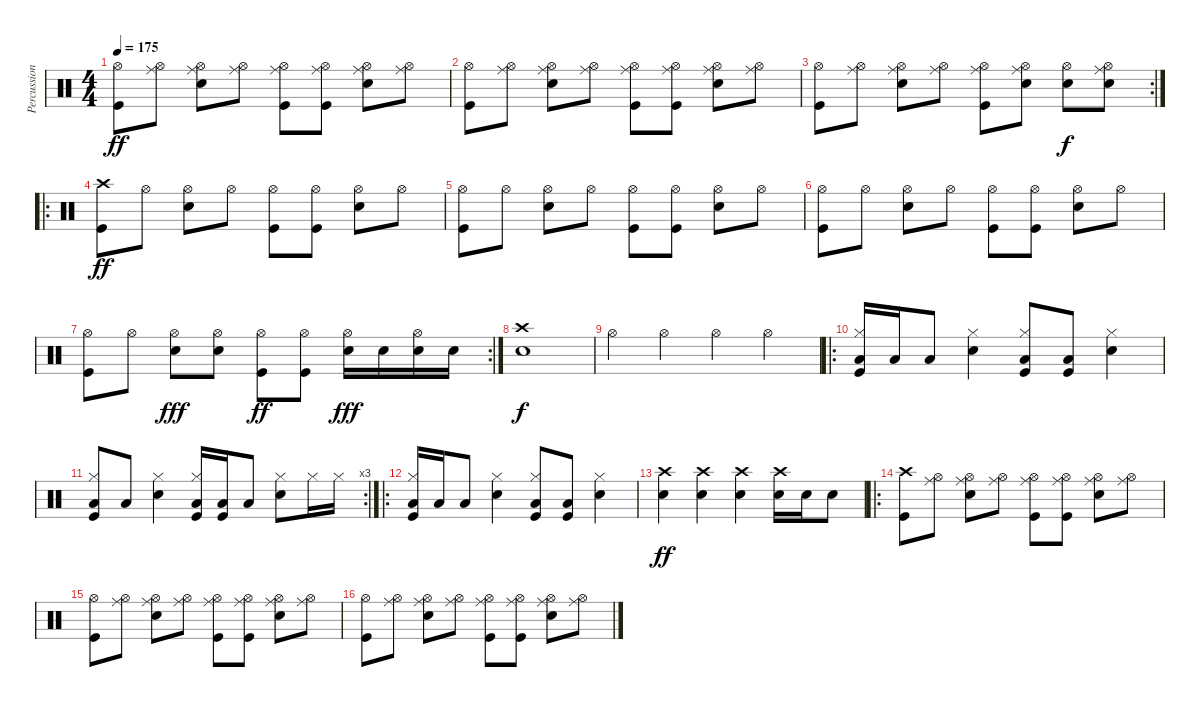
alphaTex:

\track ("Percussioni" "Percussion") {instrument percussion}
\staff {score}
\articulation defaults
\ts (4 4)
\tempo 175
\clef neutral
\ks c
("Hi-Hat (open)" "Kick (hit)").8{dy ff} ("Hi-Hat (open)" "Ride (middle)").8 ("Hi-Hat (open)" "Ride (middle)" "Electric Snare (hit)").8 ("Hi-Hat (open)" "Ride (middle)").8 ("Hi-Hat (open)" "Ride (middle)" "Kick (hit)").8 ("Hi-Hat (open)" "Ride (middle)" "Kick (hit)").8 ("Hi-Hat (open)" "Ride (middle)" "Electric Snare (hit)").8 ("Hi-Hat (open)" "Ride (middle)").8 |
("Hi-Hat (open)" "Kick (hit)").8 ("Hi-Hat (open)" "Ride (middle)").8 ("Hi-Hat (open)" "Ride (middle)" "Electric Snare (hit)").8 ("Hi-Hat (open)" "Ride (middle)").8 ("Hi-Hat (open)" "Ride (middle)" "Kick (hit)").8 ("Hi-Hat (open)" "Ride (middle)" "Kick (hit)").8 ("Hi-Hat (open)" "Ride (middle)" "Electric Snare (hit)").8 ("Hi-Hat (open)" "Ride (middle)").8 |
\rc 2
("Hi-Hat (open)" "Kick (hit)").8 ("Hi-Hat (open)" "Ride (middle)").8 ("Hi-Hat (open)" "Ride (middle)" "Electric Snare (hit)").8 ("Hi-Hat (open)" "Ride (middle)").8 ("Hi-Hat (open)" "Ride (middle)" "Kick (hit)").8 ("Hi-Hat (open)" "Ride (middle)" "Electric Snare (hit)").8 ("Hi-Hat (open)" "Electric Snare (hit)").8{dy f} ("Hi-Hat (open)" "Ride (middle)" "Electric Snare (hit)").8 |
\ro
("Crash high (hit)" "Kick (hit)").8{dy ff} "Hi-Hat (open)".8 ("Hi-Hat (open)" "Electric Snare (hit)").8 "Hi-Hat (open)".8 ("Hi-Hat (open)" "Kick (hit)").8 ("Hi-Hat (open)" "Kick (hit)").8 ("Hi-Hat (open)" "Electric Snare (hit)").8 "Hi-Hat (open)".8 |
("Hi-Hat (open)" "Kick (hit)").8 "Hi-Hat (open)".8 ("Hi-Hat (open)" "Electric Snare (hit)").8 "Hi-Hat (open)".8 ("Hi-Hat (open)" "Kick (hit)").8 ("Hi-Hat (open)" "Kick (hit)").8 ("Hi-Hat (open)" "Electric Snare (hit)").8 "Hi-Hat (open)".8 |
("Hi-Hat (open)" "Kick (hit)").8 "Hi-Hat (open)".8 ("Hi-Hat (open)" "Electric Snare (hit)").8 "Hi-Hat (open)".8 ("Hi-Hat (open)" "Kick (hit)").8 ("Hi-Hat (open)" "Kick (hit)").8 ("Hi-Hat (open)" "Electric Snare (hit)").8 "Hi-Hat (open)".8 |
\rc 2
("Hi-Hat (open)" "Kick (hit)").8 "Hi-Hat (open)".8 ("Hi-Hat (open)" "Electric Snare (hit)").8{dy fff} ("Hi-Hat (open)" "Electric Snare (hit)").8 ("Hi-Hat (open)" "Kick (hit)").8{dy ff} ("Hi-Hat (open)" "Kick (hit)").8 ("Hi-Hat (open)" "Electric Snare (hit)").16{dy fff} "Electric Snare (hit)".16 ("Hi-Hat (open)" "Electric Snare (hit)").16 "Electric Snare (hit)".16 |
("Crash high (hit)" "Electric Snare (hit)").1{dy f} |
"Hi-Hat (open)".4 "Hi-Hat (open)".4 "Hi-Hat (open)".4 "Hi-Hat (open)".4 |
\ro
("Hi-Hat (closed)" "Low Tom (hit)" "Kick (hit)").16 "Low Tom (hit)".16 "Low Tom (hit)".8 ("Hi-Hat (closed)" "Electric Snare (hit)").4 ("Hi-Hat (closed)" "Low Tom (hit)" "Kick (hit)").8 ("Low Tom (hit)" "Kick (hit)").8 ("Hi-Hat (closed)" "Electric Snare (hit)").4 |
\rc 3
("Hi-Hat (closed)" "Low Tom (hit)" "Kick (hit)").8 "Low Tom (hit)".8 ("Hi-Hat (closed)" "Electric Snare (hit)").4 ("Hi-Hat (closed)" "Low Tom (hit)" "Kick (hit)").16 ("Low Tom (hit)" "Kick (hit)").16 "Low Tom (hit)".8 ("Hi-Hat (closed)" "Electric Snare (hit)").8 "Hi-Hat (closed)".16 "Hi-Hat (closed)".16 |
\ro
("Hi-Hat (closed)" "Low Tom (hit)" "Kick (hit)").16 "Low Tom (hit)".16 "Low Tom (hit)".8 ("Hi-Hat (closed)" "Electric Snare (hit)").4 ("Hi-Hat (closed)" "Low Tom (hit)" "Kick (hit)").8 ("Low Tom (hit)" "Kick (hit)").8 ("Hi-Hat (closed)" "Electric Snare (hit)").4 |
("Crash high (hit)" "Electric Snare (hit)").4{dy ff} ("Crash high (hit)" "Electric Snare (hit)").4 ("Crash high (hit)" "Electric Snare (hit)").4 ("Crash high (hit)" "Electric Snare (hit)").16 "Electric Snare (hit)".16 "Electric Snare (hit)".8 |
\ro
("Crash high (hit)" "Kick (hit)").8 ("Hi-Hat (open)" "Ride (middle)").8 ("Hi-Hat (open)" "Ride (middle)" "Electric Snare (hit)").8 ("Hi-Hat (open)" "Ride (middle)").8 ("Hi-Hat (open)" "Ride (middle)" "Kick (hit)").8 ("Hi-Hat (open)" "Ride (middle)" "Kick (hit)").8 ("Hi-Hat (open)" "Ride (middle)" "Electric Snare (hit)").8 ("Hi-Hat (open)" "Ride (middle)").8 |
("Hi-Hat (open)" "Kick (hit)").8 ("Hi-Hat (open)" "Ride (middle)").8 ("Hi-Hat (open)" "Ride (middle)" "Electric Snare (hit)").8 ("Hi-Hat (open)" "Ride (middle)").8 ("Hi-Hat (open)" "Ride (middle)" "Kick (hit)").8 ("Hi-Hat (open)" "Ride (middle)" "Kick (hit)").8 ("Hi-Hat (open)" "Ride (middle)" "Electric Snare (hit)").8 ("Hi-Hat (open)" "Ride (middle)").8 |
("Hi-Hat (open)" "Kick (hit)").8 ("Hi-Hat (open)" "Ride (middle)").8 ("Hi-Hat (open)" "Ride (middle)" "Electric Snare (hit)").8 ("Hi-Hat (open)" "Ride (middle)").8 ("Hi-Hat (open)" "Ride (middle)" "Kick (hit)").8 ("Hi-Hat (open)" "Ride (middle)" "Kick (hit)").8 ("Hi-Hat (open)" "Ride (middle)" "Electric Snare (hit)").8 ("Hi-Hat (open)" "Ride (middle)").8
